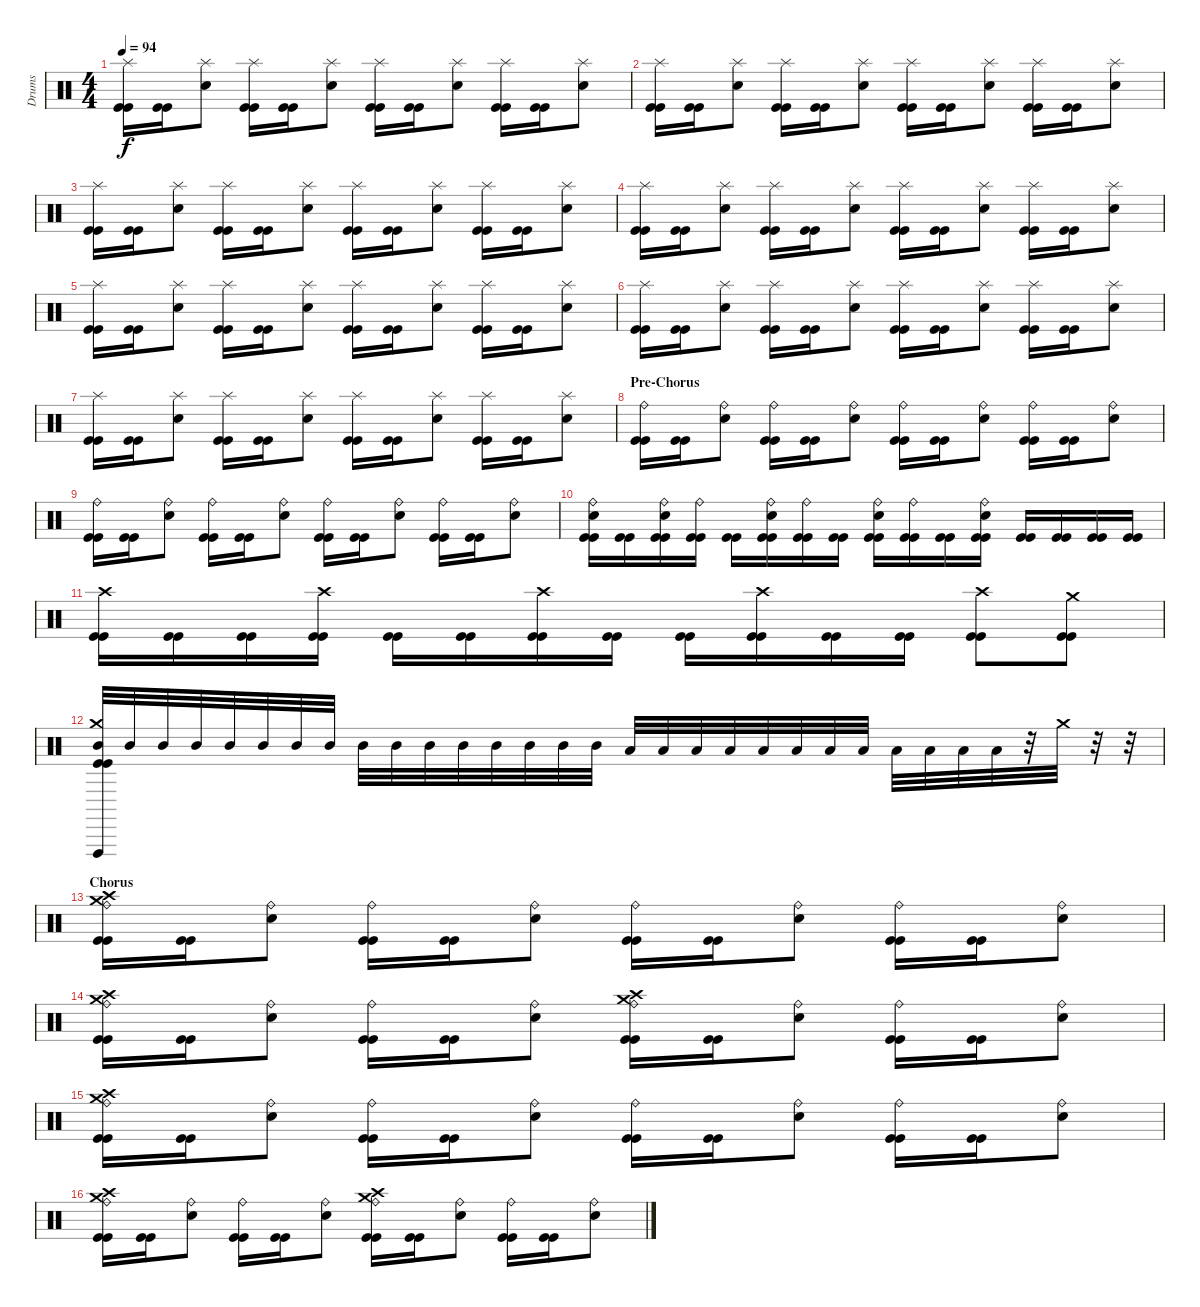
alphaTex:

\track ("Drums" "Drums") {instrument percussion}
\staff {score}
\articulation defaults
\ts (4 4)
\tempo 94
\clef neutral
\ks c
("Splash (hit)" "Kick (hit)" "Kick (hit)").16{dy f} ("Kick (hit)" "Kick (hit)").16 ("Splash (hit)" "Snare (hit) 2").8 ("Splash (hit)" "Kick (hit)" "Kick (hit)").16 ("Kick (hit)" "Kick (hit)").16 ("Splash (hit)" "Snare (hit) 2").8 ("Splash (hit)" "Kick (hit)" "Kick (hit)").16 ("Kick (hit)" "Kick (hit)").16 ("Splash (hit)" "Snare (hit) 2").8 ("Splash (hit)" "Kick (hit)" "Kick (hit)").16 ("Kick (hit)" "Kick (hit)").16 ("Splash (hit)" "Snare (hit) 2").8 |
("Splash (hit)" "Kick (hit)" "Kick (hit)").16 ("Kick (hit)" "Kick (hit)").16 ("Splash (hit)" "Snare (hit) 2").8 ("Splash (hit)" "Kick (hit)" "Kick (hit)").16 ("Kick (hit)" "Kick (hit)").16 ("Splash (hit)" "Snare (hit) 2").8 ("Splash (hit)" "Kick (hit)" "Kick (hit)").16 ("Kick (hit)" "Kick (hit)").16 ("Splash (hit)" "Snare (hit) 2").8 ("Splash (hit)" "Kick (hit)" "Kick (hit)").16 ("Kick (hit)" "Kick (hit)").16 ("Splash (hit)" "Snare (hit) 2").8 |
("Splash (hit)" "Kick (hit)" "Kick (hit)").16 ("Kick (hit)" "Kick (hit)").16 ("Splash (hit)" "Snare (hit) 2").8 ("Splash (hit)" "Kick (hit)" "Kick (hit)").16 ("Kick (hit)" "Kick (hit)").16 ("Splash (hit)" "Snare (hit) 2").8 ("Splash (hit)" "Kick (hit)" "Kick (hit)").16 ("Kick (hit)" "Kick (hit)").16 ("Splash (hit)" "Snare (hit) 2").8 ("Splash (hit)" "Kick (hit)" "Kick (hit)").16 ("Kick (hit)" "Kick (hit)").16 ("Splash (hit)" "Snare (hit) 2").8 |
("Splash (hit)" "Kick (hit)" "Kick (hit)").16 ("Kick (hit)" "Kick (hit)").16 ("Splash (hit)" "Snare (hit) 2").8 ("Splash (hit)" "Kick (hit)" "Kick (hit)").16 ("Kick (hit)" "Kick (hit)").16 ("Splash (hit)" "Snare (hit) 2").8 ("Splash (hit)" "Kick (hit)" "Kick (hit)").16 ("Kick (hit)" "Kick (hit)").16 ("Splash (hit)" "Snare (hit) 2").8 ("Splash (hit)" "Kick (hit)" "Kick (hit)").16 ("Kick (hit)" "Kick (hit)").16 ("Splash (hit)" "Snare (hit) 2").8 |
("Splash (hit)" "Kick (hit)" "Kick (hit)").16 ("Kick (hit)" "Kick (hit)").16 ("Splash (hit)" "Snare (hit) 2").8 ("Splash (hit)" "Kick (hit)" "Kick (hit)").16 ("Kick (hit)" "Kick (hit)").16 ("Splash (hit)" "Snare (hit) 2").8 ("Splash (hit)" "Kick (hit)" "Kick (hit)").16 ("Kick (hit)" "Kick (hit)").16 ("Splash (hit)" "Snare (hit) 2").8 ("Splash (hit)" "Kick (hit)" "Kick (hit)").16 ("Kick (hit)" "Kick (hit)").16 ("Splash (hit)" "Snare (hit) 2").8 |
("Splash (hit)" "Kick (hit)" "Kick (hit)").16 ("Kick (hit)" "Kick (hit)").16 ("Splash (hit)" "Snare (hit) 2").8 ("Splash (hit)" "Kick (hit)" "Kick (hit)").16 ("Kick (hit)" "Kick (hit)").16 ("Splash (hit)" "Snare (hit) 2").8 ("Splash (hit)" "Kick (hit)" "Kick (hit)").16 ("Kick (hit)" "Kick (hit)").16 ("Splash (hit)" "Snare (hit) 2").8 ("Splash (hit)" "Kick (hit)" "Kick (hit)").16 ("Kick (hit)" "Kick (hit)").16 ("Splash (hit)" "Snare (hit) 2").8 |
("Splash (hit)" "Kick (hit)" "Kick (hit)").16 ("Kick (hit)" "Kick (hit)").16 ("Splash (hit)" "Snare (hit) 2").8 ("Splash (hit)" "Kick (hit)" "Kick (hit)").16 ("Kick (hit)" "Kick (hit)").16 ("Splash (hit)" "Snare (hit) 2").8 ("Splash (hit)" "Kick (hit)" "Kick (hit)").16 ("Kick (hit)" "Kick (hit)").16 ("Splash (hit)" "Snare (hit) 2").8 ("Splash (hit)" "Kick (hit)" "Kick (hit)").16 ("Kick (hit)" "Kick (hit)").16 ("Splash (hit)" "Snare (hit) 2").8 |
\section ("" "Pre-Chorus")
("Ride (bell)" "Kick (hit)" "Kick (hit)").16 ("Kick (hit)" "Kick (hit)").16 ("Ride (bell)" "Snare (hit) 2").8 ("Ride (bell)" "Kick (hit)" "Kick (hit)").16 ("Kick (hit)" "Kick (hit)").16 ("Ride (bell)" "Snare (hit) 2").8 ("Ride (bell)" "Kick (hit)" "Kick (hit)").16 ("Kick (hit)" "Kick (hit)").16 ("Ride (bell)" "Snare (hit) 2").8 ("Ride (bell)" "Kick (hit)" "Kick (hit)").16 ("Kick (hit)" "Kick (hit)").16 ("Ride (bell)" "Snare (hit) 2").8 |
("Ride (bell)" "Kick (hit)" "Kick (hit)").16 ("Kick (hit)" "Kick (hit)").16 ("Ride (bell)" "Snare (hit) 2").8 ("Ride (bell)" "Kick (hit)" "Kick (hit)").16 ("Kick (hit)" "Kick (hit)").16 ("Ride (bell)" "Snare (hit) 2").8 ("Ride (bell)" "Kick (hit)" "Kick (hit)").16 ("Kick (hit)" "Kick (hit)").16 ("Ride (bell)" "Snare (hit) 2").8 ("Ride (bell)" "Kick (hit)" "Kick (hit)").16 ("Kick (hit)" "Kick (hit)").16 ("Ride (bell)" "Snare (hit) 2").8 |
("Ride (bell)" "Snare (hit) 2" "Kick (hit)" "Kick (hit)").16 ("Kick (hit)" "Kick (hit)").16 ("Ride (bell)" "Snare (hit) 2" "Kick (hit)" "Kick (hit)").16 ("Ride (bell)" "Kick (hit)" "Kick (hit)").16 ("Kick (hit)" "Kick (hit)").16 ("Ride (bell)" "Snare (hit) 2" "Kick (hit)" "Kick (hit)").16 ("Ride (bell)" "Kick (hit)" "Kick (hit)").16 ("Kick (hit)" "Kick (hit)").16 ("Ride (bell)" "Snare (hit) 2" "Kick (hit)" "Kick (hit)").16 ("Ride (bell)" "Kick (hit)" "Kick (hit)").16 ("Kick (hit)" "Kick (hit)").16 ("Ride (bell)" "Snare (hit) 2" "Kick (hit)" "Kick (hit)").16 ("Kick (hit)" "Kick (hit)").16 ("Kick (hit)" "Kick (hit)").16 ("Kick (hit)" "Kick (hit)").16 ("Kick (hit)" "Kick (hit)").16 |
("Crash high (hit)" "Kick (hit)" "Kick (hit)").16 ("Kick (hit)" "Kick (hit)").16 ("Kick (hit)" "Kick (hit)").16 ("Crash high (hit)" "Kick (hit)" "Kick (hit)").16 ("Kick (hit)" "Kick (hit)").16 ("Kick (hit)" "Kick (hit)").16 ("Crash high (hit)" "Kick (hit)" "Kick (hit)").16 ("Kick (hit)" "Kick (hit)").16 ("Kick (hit)" "Kick (hit)").16 ("Crash high (hit)" "Kick (hit)" "Kick (hit)").16 ("Kick (hit)" "Kick (hit)").16 ("Kick (hit)" "Kick (hit)").16 ("Crash high (hit)" "Kick (hit)" "Kick (hit)").8 ("Crash medium (hit)" "Kick (hit)" "Kick (hit)").8 |
("Vibraslap (hit)" "Crash medium (hit)" "Mid Tom (hit)" "Kick (hit)" "Kick (hit)").32 "Mid Tom (hit)".32 "Mid Tom (hit)".32 "Mid Tom (hit)".32 "Mid Tom (hit)".32 "Mid Tom (hit)".32 "Mid Tom (hit)".32 "Mid Tom (hit)".32 "Mid Tom (hit)".32 "Mid Tom (hit)".32 "Mid Tom (hit)".32 "Mid Tom (hit)".32 "Mid Tom (hit)".32 "Mid Tom (hit)".32 "Mid Tom (hit)".32 "Mid Tom (hit)".32 "Low Tom (hit)".32 "Low Tom (hit)".32 "Low Tom (hit)".32 "Low Tom (hit)".32 "Low Tom (hit)".32 "Low Tom (hit)".32 "Low Tom (hit)".32 "Low Tom (hit)".32 "Low Tom (hit)".32 "Low Tom (hit)".32 "Low Tom (hit)".32 "Low Tom (hit)".32 r.32 "Crash medium (hit)".32 r.32 r.32 |
\section ("" "Chorus")
("Crash high (hit)" "Crash medium (hit)" "Ride (bell)" "Kick (hit)" "Kick (hit)").16 ("Kick (hit)" "Kick (hit)").16 ("Ride (bell)" "Snare (hit) 2").8 ("Ride (bell)" "Kick (hit)" "Kick (hit)").16 ("Kick (hit)" "Kick (hit)").16 ("Ride (bell)" "Snare (hit) 2").8 ("Ride (bell)" "Kick (hit)" "Kick (hit)").16 ("Kick (hit)" "Kick (hit)").16 ("Ride (bell)" "Snare (hit) 2").8 ("Ride (bell)" "Kick (hit)" "Kick (hit)").16 ("Kick (hit)" "Kick (hit)").16 ("Ride (bell)" "Snare (hit) 2").8 |
("Ride (bell)" "Crash high (hit)" "Crash medium (hit)" "Kick (hit)" "Kick (hit)").16 ("Kick (hit)" "Kick (hit)").16 ("Ride (bell)" "Snare (hit) 2").8 ("Ride (bell)" "Kick (hit)" "Kick (hit)").16 ("Kick (hit)" "Kick (hit)").16 ("Ride (bell)" "Snare (hit) 2").8 ("Ride (bell)" "Crash high (hit)" "Crash medium (hit)" "Kick (hit)" "Kick (hit)").16 ("Kick (hit)" "Kick (hit)").16 ("Ride (bell)" "Snare (hit) 2").8 ("Ride (bell)" "Kick (hit)" "Kick (hit)").16 ("Kick (hit)" "Kick (hit)").16 ("Ride (bell)" "Snare (hit) 2").8 |
("Ride (bell)" "Crash high (hit)" "Crash medium (hit)" "Kick (hit)" "Kick (hit)").16 ("Kick (hit)" "Kick (hit)").16 ("Ride (bell)" "Snare (hit) 2").8 ("Ride (bell)" "Kick (hit)" "Kick (hit)").16 ("Kick (hit)" "Kick (hit)").16 ("Ride (bell)" "Snare (hit) 2").8 ("Ride (bell)" "Kick (hit)" "Kick (hit)").16 ("Kick (hit)" "Kick (hit)").16 ("Ride (bell)" "Snare (hit) 2").8 ("Ride (bell)" "Kick (hit)" "Kick (hit)").16 ("Kick (hit)" "Kick (hit)").16 ("Ride (bell)" "Snare (hit) 2").8 |
("Ride (bell)" "Crash high (hit)" "Crash medium (hit)" "Kick (hit)" "Kick (hit)").16 ("Kick (hit)" "Kick (hit)").16 ("Ride (bell)" "Snare (hit) 2").8 ("Ride (bell)" "Kick (hit)" "Kick (hit)").16 ("Kick (hit)" "Kick (hit)").16 ("Ride (bell)" "Snare (hit) 2").8 ("Ride (bell)" "Crash high (hit)" "Crash medium (hit)" "Kick (hit)" "Kick (hit)").16 ("Kick (hit)" "Kick (hit)").16 ("Ride (bell)" "Snare (hit) 2").8 ("Ride (bell)" "Kick (hit)" "Kick (hit)").16 ("Kick (hit)" "Kick (hit)").16 ("Ride (bell)" "Snare (hit) 2").8
